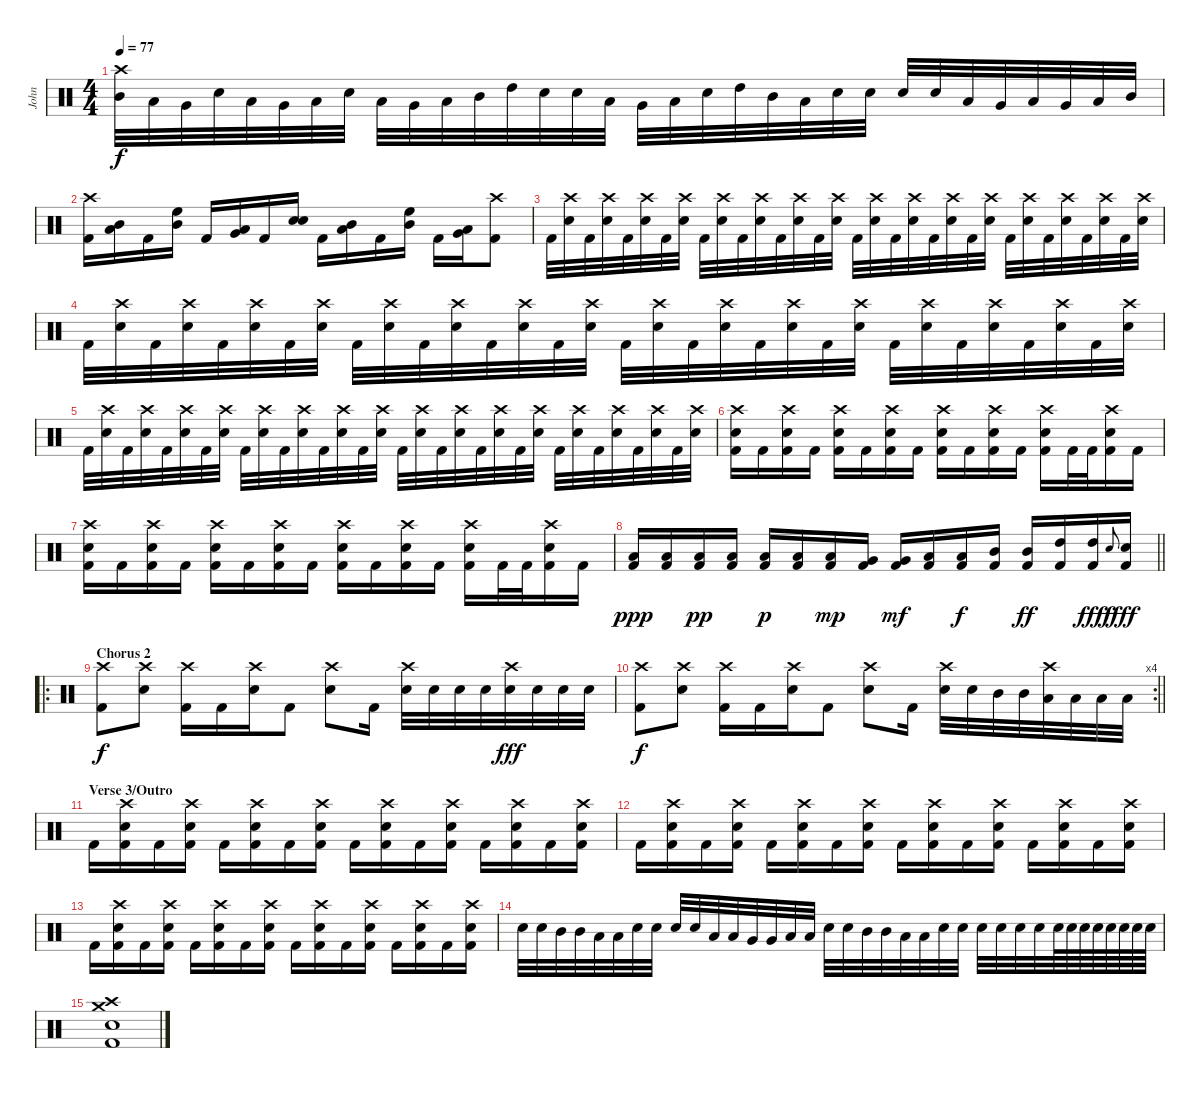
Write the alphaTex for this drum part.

\track ("John" "John") {instrument percussion}
\staff {score}
\articulation defaults
\ts (4 4)
\tempo 77
\clef neutral
\ks c
("Crash high (hit)" "Mid Tom (hit)").32{dy f} "Low Tom (hit)".32 "Very Low Tom (hit)".32 "Electric Snare (hit)".32 "Low Floor Tom (hit)".32 "Very Low Tom (hit)".32 "Low Floor Tom (hit)".32 "Electric Snare (hit)".32 "Low Floor Tom (hit)".32 "Very Low Tom (hit)".32 "Low Tom (hit)".32 "Mid Tom (hit)".32 "High Tom (hit)".32 "Electric Snare (hit)".32 "Electric Snare (hit)".32 "Low Floor Tom (hit)".32 "Very Low Tom (hit)".32 "Low Tom (hit)".32 "Electric Snare (hit)".32 "High Tom (hit)".32 "Mid Tom (hit)".32 "Low Tom (hit)".32 "Electric Snare (hit)".32 "Electric Snare (hit)".32 "Electric Snare (hit)".32 "Electric Snare (hit)".32 "Low Tom (hit)".32 "Very Low Tom (hit)".32 "Low Floor Tom (hit)".32 "Very Low Tom (hit)".32 "Low Tom (hit)".32 "Mid Tom (hit)".32 |
("Crash high (hit)" "Kick (hit) 2").16 ("Low Tom (hit)" "Mid Tom (hit)").16 "Kick (hit) 2".16 ("High Floor Tom (hit)" "Mid Tom (hit)").16 "Kick (hit) 2".16 ("Very Low Tom (hit)" "Low Floor Tom (hit)").16 "Kick (hit) 2".16 ("Electric Snare (hit)" "Electric Snare (hit)").16 "Kick (hit) 2".16 ("Low Tom (hit)" "Mid Tom (hit)").16 "Kick (hit) 2".16 ("High Floor Tom (hit)" "Mid Tom (hit)").16 "Kick (hit) 2".16 ("Very Low Tom (hit)" "Low Floor Tom (hit)").16 ("Crash high (hit)" "Kick (hit) 2").8 |
"Kick (hit) 2".32 ("Crash high (hit)" "Electric Snare (hit)").32 "Kick (hit) 2".32 ("Crash high (hit)" "Electric Snare (hit)").32 "Kick (hit) 2".32 ("Crash high (hit)" "Electric Snare (hit)").32 "Kick (hit) 2".32 ("Crash high (hit)" "Electric Snare (hit)").32 "Kick (hit) 2".32 ("Crash high (hit)" "Electric Snare (hit)").32 "Kick (hit) 2".32 ("Crash high (hit)" "Electric Snare (hit)").32 "Kick (hit) 2".32 ("Crash high (hit)" "Electric Snare (hit)").32 "Kick (hit) 2".32 ("Crash high (hit)" "Electric Snare (hit)").32 "Kick (hit) 2".32 ("Crash high (hit)" "Electric Snare (hit)").32 "Kick (hit) 2".32 ("Crash high (hit)" "Electric Snare (hit)").32 "Kick (hit) 2".32 ("Crash high (hit)" "Electric Snare (hit)").32 "Kick (hit) 2".32 ("Crash high (hit)" "Electric Snare (hit)").32 "Kick (hit) 2".32 ("Crash high (hit)" "Electric Snare (hit)").32 "Kick (hit) 2".32 ("Crash high (hit)" "Electric Snare (hit)").32 "Kick (hit) 2".32 ("Crash high (hit)" "Electric Snare (hit)").32 "Kick (hit) 2".32 ("Crash high (hit)" "Electric Snare (hit)").32 |
"Kick (hit) 2".32 ("Crash high (hit)" "Electric Snare (hit)").32 "Kick (hit) 2".32 ("Crash high (hit)" "Electric Snare (hit)").32 "Kick (hit) 2".32 ("Crash high (hit)" "Electric Snare (hit)").32 "Kick (hit) 2".32 ("Crash high (hit)" "Electric Snare (hit)").32 "Kick (hit) 2".32 ("Crash high (hit)" "Electric Snare (hit)").32 "Kick (hit) 2".32 ("Crash high (hit)" "Electric Snare (hit)").32 "Kick (hit) 2".32 ("Crash high (hit)" "Electric Snare (hit)").32 "Kick (hit) 2".32 ("Crash high (hit)" "Electric Snare (hit)").32 "Kick (hit) 2".32 ("Crash high (hit)" "Electric Snare (hit)").32 "Kick (hit) 2".32 ("Crash high (hit)" "Electric Snare (hit)").32 "Kick (hit) 2".32 ("Crash high (hit)" "Electric Snare (hit)").32 "Kick (hit) 2".32 ("Crash high (hit)" "Electric Snare (hit)").32 "Kick (hit) 2".32 ("Crash high (hit)" "Electric Snare (hit)").32 "Kick (hit) 2".32 ("Crash high (hit)" "Electric Snare (hit)").32 "Kick (hit) 2".32 ("Crash high (hit)" "Electric Snare (hit)").32 "Kick (hit) 2".32 ("Crash high (hit)" "Electric Snare (hit)").32 |
"Kick (hit) 2".32 ("Crash high (hit)" "Electric Snare (hit)").32 "Kick (hit) 2".32 ("Crash high (hit)" "Electric Snare (hit)").32 "Kick (hit) 2".32 ("Crash high (hit)" "Electric Snare (hit)").32 "Kick (hit) 2".32 ("Crash high (hit)" "Electric Snare (hit)").32 "Kick (hit) 2".32 ("Crash high (hit)" "Electric Snare (hit)").32 "Kick (hit) 2".32 ("Crash high (hit)" "Electric Snare (hit)").32 "Kick (hit) 2".32 ("Crash high (hit)" "Electric Snare (hit)").32 "Kick (hit) 2".32 ("Crash high (hit)" "Electric Snare (hit)").32 "Kick (hit) 2".32 ("Crash high (hit)" "Electric Snare (hit)").32 "Kick (hit) 2".32 ("Crash high (hit)" "Electric Snare (hit)").32 "Kick (hit) 2".32 ("Crash high (hit)" "Electric Snare (hit)").32 "Kick (hit) 2".32 ("Crash high (hit)" "Electric Snare (hit)").32 "Kick (hit) 2".32 ("Crash high (hit)" "Electric Snare (hit)").32 "Kick (hit) 2".32 ("Crash high (hit)" "Electric Snare (hit)").32 "Kick (hit) 2".32 ("Crash high (hit)" "Electric Snare (hit)").32 "Kick (hit) 2".32 ("Crash high (hit)" "Electric Snare (hit)").32 |
("Crash high (hit)" "Electric Snare (hit)" "Kick (hit) 2").16 "Kick (hit) 2".16 ("Crash high (hit)" "Electric Snare (hit)" "Kick (hit) 2").16 "Kick (hit) 2".16 ("Crash high (hit)" "Electric Snare (hit)" "Kick (hit) 2").16 "Kick (hit) 2".16 ("Crash high (hit)" "Electric Snare (hit)" "Kick (hit) 2").16 "Kick (hit) 2".16 ("Crash high (hit)" "Electric Snare (hit)" "Kick (hit) 2").16 "Kick (hit) 2".16 ("Crash high (hit)" "Electric Snare (hit)" "Kick (hit) 2").16 "Kick (hit) 2".16 ("Crash high (hit)" "Electric Snare (hit)" "Kick (hit) 2").16 "Kick (hit) 2".32 "Kick (hit) 2".32 ("Crash high (hit)" "Electric Snare (hit)" "Kick (hit) 2").16 "Kick (hit) 2".16 |
("Crash high (hit)" "Electric Snare (hit)" "Kick (hit) 2").16 "Kick (hit) 2".16 ("Crash high (hit)" "Electric Snare (hit)" "Kick (hit) 2").16 "Kick (hit) 2".16 ("Crash high (hit)" "Electric Snare (hit)" "Kick (hit) 2").16 "Kick (hit) 2".16 ("Crash high (hit)" "Electric Snare (hit)" "Kick (hit) 2").16 "Kick (hit) 2".16 ("Crash high (hit)" "Electric Snare (hit)" "Kick (hit) 2").16 "Kick (hit) 2".16 ("Crash high (hit)" "Electric Snare (hit)" "Kick (hit) 2").16 "Kick (hit) 2".16 ("Crash high (hit)" "Electric Snare (hit)" "Kick (hit) 2").16 "Kick (hit) 2".32 "Kick (hit) 2".32 ("Crash high (hit)" "Electric Snare (hit)" "Kick (hit) 2").16 "Kick (hit) 2".16 |
\barLineRight lightlight
("Low Floor Tom (hit)" "Kick (hit) 2").16{dy ppp} ("Low Floor Tom (hit)" "Kick (hit) 2").16 ("Low Floor Tom (hit)" "Kick (hit) 2").16{dy pp} ("Low Floor Tom (hit)" "Kick (hit) 2").16 ("Low Floor Tom (hit)" "Kick (hit) 2").16{dy p} ("Low Floor Tom (hit)" "Kick (hit) 2").16 ("Low Floor Tom (hit)" "Kick (hit) 2").16{dy mp} ("Very Low Tom (hit)" "Kick (hit) 2").16 ("Very Low Tom (hit)" "Kick (hit) 2").16{dy mf} ("Low Tom (hit)" "Kick (hit) 2").16 ("Low Tom (hit)" "Kick (hit) 2").16{dy f} ("Mid Tom (hit)" "Kick (hit) 2").16 ("Mid Tom (hit)" "Kick (hit) 2").16{dy ff} ("High Tom (hit)" "Kick (hit) 2").16 ("High Tom (hit)" "Kick (hit) 2").16{dy fff} "Snare (hit) 2".8{gr onbeat dy f} ("Electric Snare (hit)" "Kick (hit) 2").16{dy fff} |
\ro
\section ("" "Chorus 2")
("Crash high (hit)" "Kick (hit) 2").8{dy f} ("Crash high (hit)" "Electric Snare (hit)").8 ("Crash high (hit)" "Kick (hit) 2").16 "Kick (hit) 2".16 ("Crash high (hit)" "Electric Snare (hit)").16 "Kick (hit) 2".8 ("Crash high (hit)" "Electric Snare (hit)").8 "Kick (hit) 2".16 ("Crash high (hit)" "Electric Snare (hit)").32 "Electric Snare (hit)".32 "Electric Snare (hit)".32 "Electric Snare (hit)".32 ("Crash high (hit)" "Electric Snare (hit)").32{dy fff} "Electric Snare (hit)".32 "Electric Snare (hit)".32 "Electric Snare (hit)".32 |
\rc 4
\barLineRight lightlight
("Crash high (hit)" "Kick (hit) 2").8{dy f} ("Crash high (hit)" "Electric Snare (hit)").8 ("Crash high (hit)" "Kick (hit) 2").16 "Kick (hit) 2".16 ("Crash high (hit)" "Electric Snare (hit)").16 "Kick (hit) 2".8 ("Crash high (hit)" "Electric Snare (hit)").8 "Kick (hit) 2".16 ("Crash high (hit)" "Electric Snare (hit)").32 "Electric Snare (hit)".32 "Mid Tom (hit)".32 "Mid Tom (hit)".32 ("Crash high (hit)" "Low Tom (hit)").32 "Low Tom (hit)".32 "Low Floor Tom (hit)".32 "Low Floor Tom (hit)".32 |
\section ("" "Verse 3/Outro")
"Kick (hit) 2".16 ("Crash high (hit)" "Electric Snare (hit)" "Kick (hit) 2").16 "Kick (hit) 2".16 ("Crash high (hit)" "Electric Snare (hit)" "Kick (hit) 2").16 "Kick (hit) 2".16 ("Crash high (hit)" "Electric Snare (hit)" "Kick (hit) 2").16 "Kick (hit) 2".16 ("Crash high (hit)" "Electric Snare (hit)" "Kick (hit) 2").16 "Kick (hit) 2".16 ("Crash high (hit)" "Electric Snare (hit)" "Kick (hit) 2").16 "Kick (hit) 2".16 ("Crash high (hit)" "Electric Snare (hit)" "Kick (hit) 2").16 "Kick (hit) 2".16 ("Crash high (hit)" "Electric Snare (hit)" "Kick (hit) 2").16 "Kick (hit) 2".16 ("Crash high (hit)" "Electric Snare (hit)" "Kick (hit) 2").16 |
"Kick (hit) 2".16 ("Crash high (hit)" "Electric Snare (hit)" "Kick (hit) 2").16 "Kick (hit) 2".16 ("Crash high (hit)" "Electric Snare (hit)" "Kick (hit) 2").16 "Kick (hit) 2".16 ("Crash high (hit)" "Electric Snare (hit)" "Kick (hit) 2").16 "Kick (hit) 2".16 ("Crash high (hit)" "Electric Snare (hit)" "Kick (hit) 2").16 "Kick (hit) 2".16 ("Crash high (hit)" "Electric Snare (hit)" "Kick (hit) 2").16 "Kick (hit) 2".16 ("Crash high (hit)" "Electric Snare (hit)" "Kick (hit) 2").16 "Kick (hit) 2".16 ("Crash high (hit)" "Electric Snare (hit)" "Kick (hit) 2").16 "Kick (hit) 2".16 ("Crash high (hit)" "Electric Snare (hit)" "Kick (hit) 2").16 |
"Kick (hit) 2".16 ("Crash high (hit)" "Electric Snare (hit)" "Kick (hit) 2").16 "Kick (hit) 2".16 ("Crash high (hit)" "Electric Snare (hit)" "Kick (hit) 2").16 "Kick (hit) 2".16 ("Crash high (hit)" "Electric Snare (hit)" "Kick (hit) 2").16 "Kick (hit) 2".16 ("Crash high (hit)" "Electric Snare (hit)" "Kick (hit) 2").16 "Kick (hit) 2".16 ("Crash high (hit)" "Electric Snare (hit)" "Kick (hit) 2").16 "Kick (hit) 2".16 ("Crash high (hit)" "Electric Snare (hit)" "Kick (hit) 2").16 "Kick (hit) 2".16 ("Crash high (hit)" "Electric Snare (hit)" "Kick (hit) 2").16 "Kick (hit) 2".16 ("Crash high (hit)" "Electric Snare (hit)" "Kick (hit) 2").16 |
"Electric Snare (hit)".32 "Electric Snare (hit)".32 "Mid Tom (hit)".32 "Mid Tom (hit)".32 "Low Tom (hit)".32 "Low Tom (hit)".32 "Electric Snare (hit)".32 "Electric Snare (hit)".32 "Electric Snare (hit)".32 "Electric Snare (hit)".32 "Low Tom (hit)".32 "Low Tom (hit)".32 "Very Low Tom (hit)".32 "Very Low Tom (hit)".32 "Low Floor Tom (hit)".32 "Low Floor Tom (hit)".32 "Electric Snare (hit)".32 "Electric Snare (hit)".32 "Mid Tom (hit)".32 "Mid Tom (hit)".32 "Low Tom (hit)".32 "Low Tom (hit)".32 "Electric Snare (hit)".32 "Electric Snare (hit)".32 "Electric Snare (hit)".32 "Electric Snare (hit)".32 "Electric Snare (hit)".32 "Electric Snare (hit)".32 "Electric Snare (hit)".64 "Electric Snare (hit)".64 "Electric Snare (hit)".64 "Electric Snare (hit)".64 "Electric Snare (hit)".64 "Electric Snare (hit)".64 "Electric Snare (hit)".64 "Electric Snare (hit)".64 |
("Crash high (hit)" "Crash medium (hit)" "Electric Snare (hit)" "Kick (hit) 2").1
